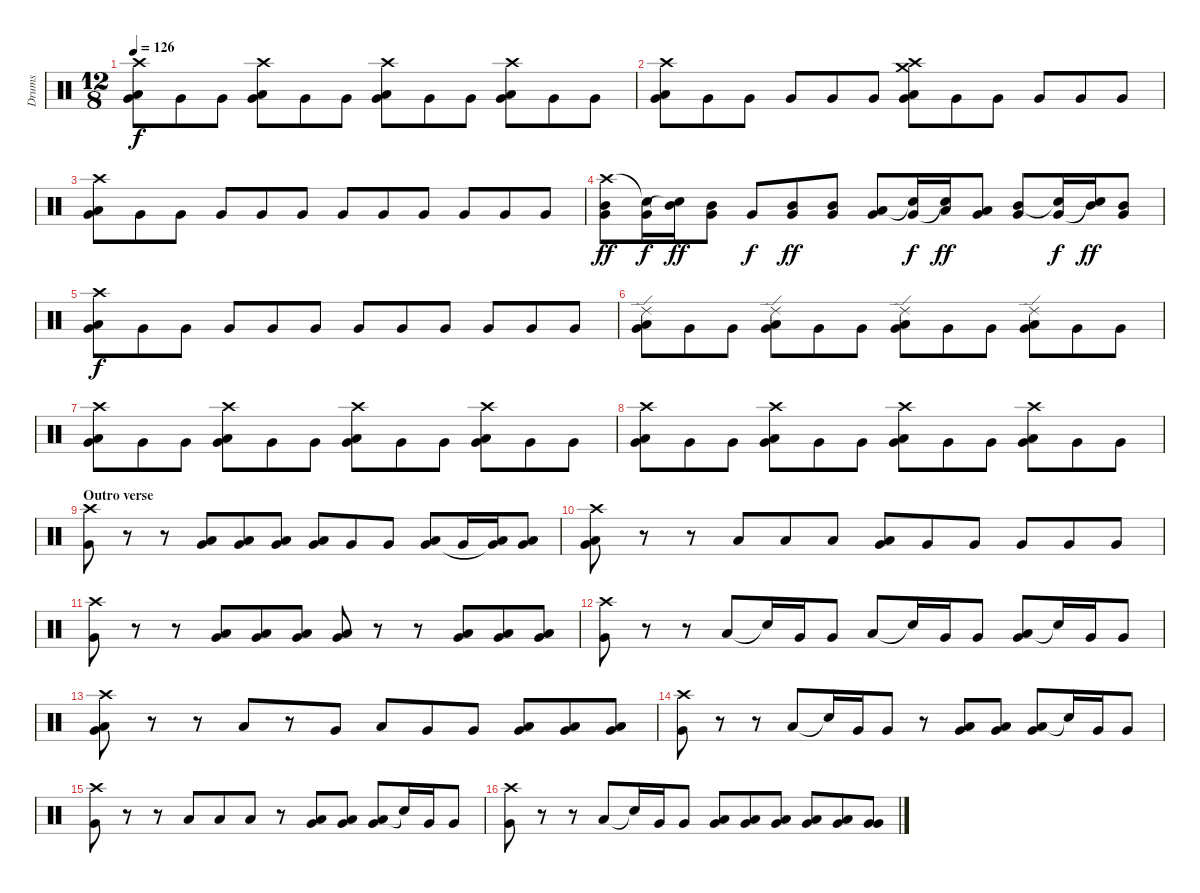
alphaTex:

\track ("Drums" "Drums") {instrument percussion}
\staff {score}
\articulation defaults
\ts (12 8)
\tempo 126
\clef neutral
\ks c
("Crash high (hit)" "Low Tom (hit)" "Very Low Tom (hit)").8{dy f} "Very Low Tom (hit)".8 "Very Low Tom (hit)".8 ("Crash high (hit)" "Low Tom (hit)" "Very Low Tom (hit)").8 "Very Low Tom (hit)".8 "Very Low Tom (hit)".8 ("Crash high (hit)" "Low Tom (hit)" "Very Low Tom (hit)").8 "Very Low Tom (hit)".8 "Very Low Tom (hit)".8 ("Crash high (hit)" "Low Tom (hit)" "Very Low Tom (hit)").8 "Very Low Tom (hit)".8 "Very Low Tom (hit)".8 |
("Crash high (hit)" "Low Tom (hit)" "Very Low Tom (hit)").8 "Very Low Tom (hit)".8 "Very Low Tom (hit)".8 "Very Low Tom (hit)".8 "Very Low Tom (hit)".8 "Very Low Tom (hit)".8 ("Crash high (hit)" "Crash medium (hit)" "Low Tom (hit)" "Very Low Tom (hit)").8 "Very Low Tom (hit)".8 "Very Low Tom (hit)".8 "Very Low Tom (hit)".8 "Very Low Tom (hit)".8 "Very Low Tom (hit)".8 |
("Crash high (hit)" "Low Tom (hit)" "Very Low Tom (hit)").8 "Very Low Tom (hit)".8 "Very Low Tom (hit)".8 "Very Low Tom (hit)".8 "Very Low Tom (hit)".8 "Very Low Tom (hit)".8 "Very Low Tom (hit)".8 "Very Low Tom (hit)".8 "Very Low Tom (hit)".8 "Very Low Tom (hit)".8 "Very Low Tom (hit)".8 "Very Low Tom (hit)".8 |
("Crash high (hit)" "Mid Tom (hit)" "Very Low Tom (hit)").8{dy ff} ("Snare (hit)"{t} "Very Low Tom (hit)").16{dy f} ("Mid Tom (hit)" "Snare (hit)"{t}).16{dy ff} ("Mid Tom (hit)" "Very Low Tom (hit)").8 "Very Low Tom (hit)".8{dy f} ("Mid Tom (hit)" "Very Low Tom (hit)").8{dy ff} ("Mid Tom (hit)" "Very Low Tom (hit)").8 ("Low Tom (hit)" "Very Low Tom (hit)").8 ("Snare (hit)"{t} "Very Low Tom (hit)").16{dy f} ("Low Tom (hit)" "Snare (hit)"{t}).16{dy ff} ("Low Tom (hit)" "Very Low Tom (hit)").8 ("Mid Tom (hit)" "Very Low Tom (hit)").8 ("Snare (hit)"{t} "Very Low Tom (hit)").16{dy f} ("Mid Tom (hit)" "Snare (hit)"{t}).16{dy ff} ("Mid Tom (hit)" "Very Low Tom (hit)").8 |
("Crash high (hit)" "Low Tom (hit)" "Very Low Tom (hit)").8{dy f} "Very Low Tom (hit)".8 "Very Low Tom (hit)".8 "Very Low Tom (hit)".8 "Very Low Tom (hit)".8 "Very Low Tom (hit)".8 "Very Low Tom (hit)".8 "Very Low Tom (hit)".8 "Very Low Tom (hit)".8 "Very Low Tom (hit)".8 "Very Low Tom (hit)".8 "Very Low Tom (hit)".8 |
("Ride (edge) 2" "Very Low Tom (hit)" "Low Tom (hit)").8 "Very Low Tom (hit)".8 "Very Low Tom (hit)".8 ("Ride (edge) 2" "Very Low Tom (hit)" "Low Tom (hit)").8 "Very Low Tom (hit)".8 "Very Low Tom (hit)".8 ("Ride (edge) 2" "Very Low Tom (hit)" "Low Tom (hit)").8 "Very Low Tom (hit)".8 "Very Low Tom (hit)".8 ("Ride (edge) 2" "Very Low Tom (hit)" "Low Tom (hit)").8 "Very Low Tom (hit)".8 "Very Low Tom (hit)".8 |
("Crash high (hit)" "Low Tom (hit)" "Very Low Tom (hit)").8 "Very Low Tom (hit)".8 "Very Low Tom (hit)".8 ("Crash high (hit)" "Low Tom (hit)" "Very Low Tom (hit)").8 "Very Low Tom (hit)".8 "Very Low Tom (hit)".8 ("Crash high (hit)" "Low Tom (hit)" "Very Low Tom (hit)").8 "Very Low Tom (hit)".8 "Very Low Tom (hit)".8 ("Crash high (hit)" "Low Tom (hit)" "Very Low Tom (hit)").8 "Very Low Tom (hit)".8 "Very Low Tom (hit)".8 |
("Crash high (hit)" "Low Tom (hit)" "Very Low Tom (hit)").8 "Very Low Tom (hit)".8 "Very Low Tom (hit)".8 ("Crash high (hit)" "Low Tom (hit)" "Very Low Tom (hit)").8 "Very Low Tom (hit)".8 "Very Low Tom (hit)".8 ("Crash high (hit)" "Low Tom (hit)" "Very Low Tom (hit)").8 "Very Low Tom (hit)".8 "Very Low Tom (hit)".8 ("Crash high (hit)" "Low Tom (hit)" "Very Low Tom (hit)").8 "Very Low Tom (hit)".8 "Very Low Tom (hit)".8 |
\section ("" "Outro verse")
("Crash high (hit)" "Very Low Tom (hit)").8 r.8 r.8 ("Low Tom (hit)" "Very Low Tom (hit)").8 ("Low Tom (hit)" "Very Low Tom (hit)").8 ("Low Tom (hit)" "Very Low Tom (hit)").8 ("Low Tom (hit)" "Very Low Tom (hit)").8 "Very Low Tom (hit)".8 "Very Low Tom (hit)".8 ("Low Tom (hit)" "Very Low Tom (hit)").8 "Very Low Tom (hit)".16 ("Low Tom (hit)" "Very Low Tom (hit)"{t}).16 ("Low Tom (hit)" "Very Low Tom (hit)").8 |
("Crash high (hit)" "Low Tom (hit)" "Very Low Tom (hit)").8 r.8 r.8 "Low Tom (hit)".8 "Low Tom (hit)".8 "Low Tom (hit)".8 ("Low Tom (hit)" "Very Low Tom (hit)").8 "Very Low Tom (hit)".8 "Very Low Tom (hit)".8 "Very Low Tom (hit)".8 "Very Low Tom (hit)".8 "Very Low Tom (hit)".8 |
("Crash high (hit)" "Very Low Tom (hit)").8 r.8 r.8 ("Low Tom (hit)" "Very Low Tom (hit)").8 ("Low Tom (hit)" "Very Low Tom (hit)").8 ("Low Tom (hit)" "Very Low Tom (hit)").8 ("Low Tom (hit)" "Very Low Tom (hit)").8 r.8 r.8 ("Low Tom (hit)" "Very Low Tom (hit)").8 ("Low Tom (hit)" "Very Low Tom (hit)").8 ("Low Tom (hit)" "Very Low Tom (hit)").8 |
("Crash high (hit)" "Very Low Tom (hit)").8 r.8 r.8 "Low Tom (hit)".8 "Snare (hit)"{t}.16 "Very Low Tom (hit)".16 "Very Low Tom (hit)".8 "Low Tom (hit)".8 "Snare (hit)"{t}.16 "Very Low Tom (hit)".16 "Very Low Tom (hit)".8 ("Low Tom (hit)" "Very Low Tom (hit)").8 "Snare (hit)"{t}.16 "Very Low Tom (hit)".16 "Very Low Tom (hit)".8 |
("Crash high (hit)" "Low Tom (hit)" "Very Low Tom (hit)").8 r.8 r.8 "Low Tom (hit)".8 r.8 "Very Low Tom (hit)".8 "Low Tom (hit)".8 "Very Low Tom (hit)".8 "Very Low Tom (hit)".8 ("Low Tom (hit)" "Very Low Tom (hit)").8 ("Low Tom (hit)" "Very Low Tom (hit)").8 ("Low Tom (hit)" "Very Low Tom (hit)").8 |
("Crash high (hit)" "Very Low Tom (hit)").8 r.8 r.8 "Low Tom (hit)".8 "Snare (hit)"{t}.16 "Very Low Tom (hit)".16 "Very Low Tom (hit)".8 r.8 ("Low Tom (hit)" "Very Low Tom (hit)").8 ("Low Tom (hit)" "Very Low Tom (hit)").8 ("Low Tom (hit)" "Very Low Tom (hit)").8 "Snare (hit)"{t}.16 "Very Low Tom (hit)".16 "Very Low Tom (hit)".8 |
("Crash high (hit)" "Very Low Tom (hit)").8 r.8 r.8 "Low Floor Tom (hit)".8 "Low Floor Tom (hit)".8 "Low Tom (hit)".8 r.8 ("Low Tom (hit)" "Very Low Tom (hit)").8 ("Low Tom (hit)" "Very Low Tom (hit)").8 ("Low Tom (hit)" "Very Low Tom (hit)").8 "Snare (hit)"{t}.16 "Very Low Tom (hit)".16 "Very Low Tom (hit)".8 |
("Crash high (hit)" "Very Low Tom (hit)").8 r.8 r.8 "Low Tom (hit)".8 "Snare (hit)"{t}.16 "Very Low Tom (hit)".16 "Very Low Tom (hit)".8 ("Low Tom (hit)" "Very Low Tom (hit)").8 ("Low Tom (hit)" "Very Low Tom (hit)").8 ("Low Tom (hit)" "Very Low Tom (hit)").8 ("Low Tom (hit)" "Very Low Tom (hit)").8 ("Low Tom (hit)" "Very Low Tom (hit)").8 ("Very Low Tom (hit)" "Very Low Tom (hit)").8
